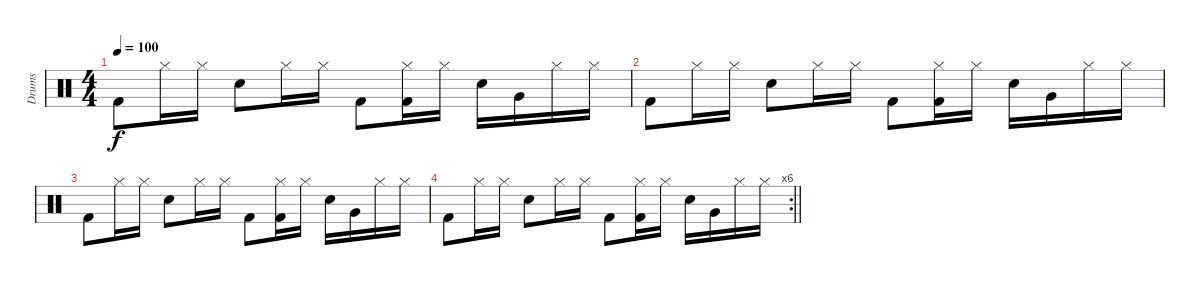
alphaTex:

\track ("Drums" "Drums") {instrument percussion}
\staff {score}
\articulation defaults
\ts (4 4)
\tempo 100
\clef neutral
\ks c "Kick (hit) 2".8{dy f} "Hi-Hat (closed)".16 "Hi-Hat (closed)".16 "Snare (hit) 2".8 "Hi-Hat (closed)".16 "Hi-Hat (closed)".16 "Kick (hit) 2".8
("Hi-Hat (closed)" "Kick (hit) 2").16 "Hi-Hat (closed)".16 "Snare (hit) 2".16 "Very Low Tom (hit)".16 "Hi-Hat (closed)".16 "Hi-Hat (closed)".16 |
"Kick (hit) 2".8 "Hi-Hat (closed)".16 "Hi-Hat (closed)".16 "Snare (hit) 2".8 "Hi-Hat (closed)".16 "Hi-Hat (closed)".16 "Kick (hit) 2".8 ("Hi-Hat (closed)" "Kick (hit) 2").16 "Hi-Hat (closed)".16 "Snare (hit) 2".16 "Very Low Tom (hit)".16 "Hi-Hat (closed)".16 "Hi-Hat (closed)".16 |
"Kick (hit) 2".8 "Hi-Hat (closed)".16 "Hi-Hat (closed)".16 "Snare (hit) 2".8 "Hi-Hat (closed)".16 "Hi-Hat (closed)".16 "Kick (hit) 2".8 ("Hi-Hat (closed)" "Kick (hit) 2").16 "Hi-Hat (closed)".16 "Snare (hit) 2".16 "Very Low Tom (hit)".16 "Hi-Hat (closed)".16 "Hi-Hat (closed)".16 |
\rc 6
\barLineRight lightlight "Kick (hit) 2".8 "Hi-Hat (closed)".16 "Hi-Hat (closed)".16 "Snare (hit) 2".8 "Hi-Hat (closed)".16 "Hi-Hat (closed)".16 "Kick (hit) 2".8
("Hi-Hat (closed)" "Kick (hit) 2").16 "Hi-Hat (closed)".16 "Snare (hit) 2".16 "Very Low Tom (hit)".16 "Hi-Hat (closed)".16 "Hi-Hat (closed)".16
